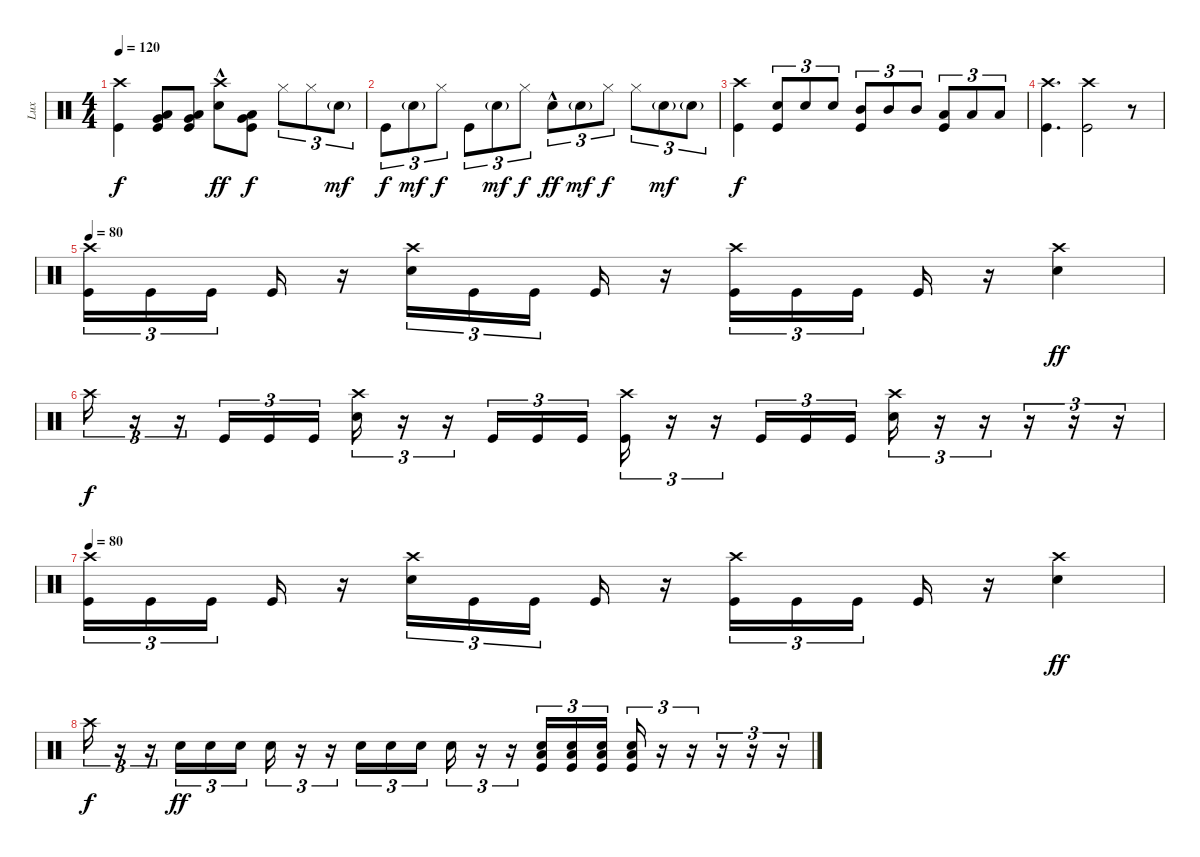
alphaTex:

\track ("Lux" "Lux") {instrument percussion bank 32}
\staff {score}
\articulation defaults
\ts (4 4)
\tempo 120
\clef neutral
\ks c
("Crash high (hit)" "Kick (hit)").4{dy f} ("Low Tom (hit)" "Very Low Tom (hit)" "Kick (hit)").8 ("Low Tom (hit)" "Very Low Tom (hit)" "Kick (hit)").8 ("Crash high (hit)" "Snare (hit) 2"{hac}).8{dy ff} ("Low Tom (hit)" "Very Low Tom (hit)" "Kick (hit)").8{dy f} "Hi-Hat (closed)".8{tu (3 2)} "Hi-Hat (closed)".8{tu (3 2)} "Snare (hit) 2"{g}.8{tu (3 2) dy mf} |
"Kick (hit)".8{tu (3 2) dy f} "Snare (hit) 2"{g}.8{tu (3 2) dy mf} "Hi-Hat (closed)".8{tu (3 2) dy f} "Kick (hit)".8{tu (3 2)} "Snare (hit) 2"{g}.8{tu (3 2) dy mf} "Hi-Hat (closed)".8{tu (3 2) dy f} "Snare (hit) 2"{hac}.8{tu (3 2) dy ff} "Snare (hit) 2"{g}.8{tu (3 2) dy mf} "Hi-Hat (closed)".8{tu (3 2) dy f} "Hi-Hat (closed)".8{tu (3 2)} "Snare (hit) 2"{g}.8{tu (3 2) dy mf} "Snare (hit) 2"{g}.8{tu (3 2)} |
("Crash high (hit)" "Kick (hit)").4{dy f} ("Snare (hit) 2" "Kick (hit)").8{tu (3 2)} "Snare (hit) 2".8{tu (3 2)} "Snare (hit) 2".8{tu (3 2)} ("Mid Tom (hit)" "Kick (hit)").8{tu (3 2)} "Mid Tom (hit)".8{tu (3 2)} "Mid Tom (hit)".8{tu (3 2)} ("Low Tom (hit)" "Kick (hit)").8{tu (3 2)} "Low Tom (hit)".8{tu (3 2)} "Low Tom (hit)".8{tu (3 2)} |
("Crash high (hit)" "Kick (hit)").4{d} ("Crash high (hit)" "Kick (hit)").2 r.8 |
\tempo 80
("Crash high (hit)" "Kick (hit)").16{tu (3 2)} "Kick (hit)".16{tu (3 2)} "Kick (hit)".16{tu (3 2) beam splitsecondary} "Kick (hit)".16 r.16 ("Crash high (hit)" "Snare (hit) 2").16{tu (3 2)} "Kick (hit)".16{tu (3 2)} "Kick (hit)".16{tu (3 2) beam splitsecondary} "Kick (hit)".16 r.16 ("Crash high (hit)" "Kick (hit)").16{tu (3 2)} "Kick (hit)".16{tu (3 2)} "Kick (hit)".16{tu (3 2) beam splitsecondary} "Kick (hit)".16 r.16 ("Crash high (hit)" "Snare (hit) 2").4{dy ff} |
"Crash high (hit)".16{tu (3 2) dy f} r.16{tu (3 2)} r.16{tu (3 2)} "Kick (hit)".16{tu (3 2)} "Kick (hit)".16{tu (3 2)} "Kick (hit)".16{tu (3 2)} ("Crash high (hit)" "Snare (hit) 2").16{tu (3 2)} r.16{tu (3 2)} r.16{tu (3 2)} "Kick (hit)".16{tu (3 2)} "Kick (hit)".16{tu (3 2)} "Kick (hit)".16{tu (3 2)} ("Crash high (hit)" "Kick (hit)").16{tu (3 2)} r.16{tu (3 2)} r.16{tu (3 2)} "Kick (hit)".16{tu (3 2)} "Kick (hit)".16{tu (3 2)} "Kick (hit)".16{tu (3 2)} ("Crash high (hit)" "Snare (hit) 2").16{tu (3 2)} r.16{tu (3 2)} r.16{tu (3 2)} r.16{tu (3 2)} r.16{tu (3 2)} r.16{tu (3 2)} |
\tempo 80
("Crash high (hit)" "Kick (hit)").16{tu (3 2)} "Kick (hit)".16{tu (3 2)} "Kick (hit)".16{tu (3 2) beam splitsecondary} "Kick (hit)".16 r.16 ("Crash high (hit)" "Snare (hit) 2").16{tu (3 2)} "Kick (hit)".16{tu (3 2)} "Kick (hit)".16{tu (3 2) beam splitsecondary} "Kick (hit)".16 r.16 ("Crash high (hit)" "Kick (hit)").16{tu (3 2)} "Kick (hit)".16{tu (3 2)} "Kick (hit)".16{tu (3 2) beam splitsecondary} "Kick (hit)".16 r.16 ("Crash high (hit)" "Snare (hit) 2").4{dy ff} |
"Crash high (hit)".16{tu (3 2) dy f} r.16{tu (3 2)} r.16{tu (3 2)} "Snare (hit) 2".16{tu (3 2) dy ff} "Snare (hit) 2".16{tu (3 2)} "Snare (hit) 2".16{tu (3 2)} "Snare (hit) 2".16{tu (3 2)} r.16{tu (3 2)} r.16{tu (3 2)} "Snare (hit) 2".16{tu (3 2)} "Snare (hit) 2".16{tu (3 2)} "Snare (hit) 2".16{tu (3 2)} "Snare (hit) 2".16{tu (3 2)} r.16{tu (3 2)} r.16{tu (3 2)} ("Low Floor Tom (hit)" "Snare (hit) 2" "Kick (hit)").16{tu (3 2)} ("Low Floor Tom (hit)" "Snare (hit) 2" "Kick (hit)").16{tu (3 2)} ("Low Floor Tom (hit)" "Snare (hit) 2" "Kick (hit)").16{tu (3 2)} ("Low Floor Tom (hit)" "Snare (hit) 2" "Kick (hit)").16{tu (3 2)} r.16{tu (3 2)} r.16{tu (3 2)} r.16{tu (3 2)} r.16{tu (3 2)} r.16{tu (3 2)}
